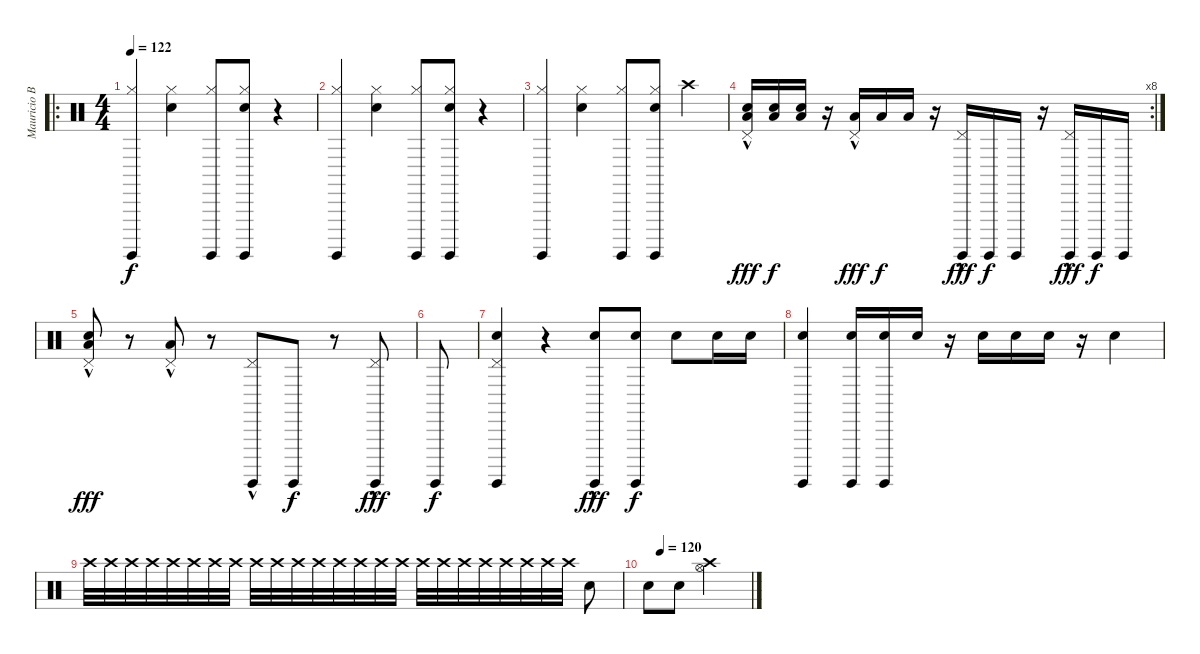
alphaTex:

\track ("Mauricio Basualto" "Mauricio B") {instrument percussion}
\staff {score}
\articulation defaults
\ro
\ts (4 4)
\tempo 122
\clef neutral
\ks c
("Surdo (hit)" "Hi-Hat (closed)").4{dy f} ("Hi-Hat (closed)" "Snare (hit) 2").4 ("Surdo (hit)" "Hi-Hat (closed)").8 ("Surdo (hit)" "Hi-Hat (closed)" "Snare (hit) 2").8 r.4 |
("Surdo (hit)" "Hi-Hat (closed)").4 ("Hi-Hat (closed)" "Snare (hit) 2").4 ("Surdo (hit)" "Hi-Hat (closed)").8 ("Surdo (hit)" "Hi-Hat (closed)" "Snare (hit) 2").8 r.4 |
("Surdo (hit)" "Hi-Hat (closed)").4 ("Hi-Hat (closed)" "Snare (hit) 2").4 ("Surdo (hit)" "Hi-Hat (closed)").8 ("Surdo (hit)" "Hi-Hat (closed)" "Snare (hit) 2").8 "Crash high (hit)".4 |
\rc 8
("Low Tom (hit)"{hac} "Snare (hit) 2" "Pedal Hi-Hat (hit)").16{dy fff} ("Low Tom (hit)" "Snare (hit) 2").16{dy f} ("Low Tom (hit)" "Snare (hit) 2").16 r.16 ("Low Tom (hit)"{hac} "Pedal Hi-Hat (hit)").16{dy fff} "Low Tom (hit)".16{dy f} "Low Tom (hit)".16 r.16 ("Surdo (hit)"{hac} "Pedal Hi-Hat (hit)").16{dy fff} "Surdo (hit)".16{dy f} "Surdo (hit)".16 r.16 ("Surdo (hit)"{hac} "Pedal Hi-Hat (hit)").16{dy fff} "Surdo (hit)".16{dy f} "Surdo (hit)".16 |
("Low Tom (hit)"{hac} "Snare (hit) 2" "Pedal Hi-Hat (hit)").8{dy fff} r.8 ("Low Tom (hit)"{hac} "Pedal Hi-Hat (hit)").8 r.8 ("Surdo (hit)"{hac} "Pedal Hi-Hat (hit)").8 "Surdo (hit)".8{dy f} r.8 ("Surdo (hit)"{hac} "Pedal Hi-Hat (hit)").8{dy fff} |
"Surdo (hit)".8{dy f} |
("Snare (hit) 2" "Pedal Hi-Hat (hit)" "Surdo (hit)").4 r.4 ("Snare (hit) 2"{hac} "Surdo (hit)").8{dy fff} ("Snare (hit) 2" "Surdo (hit)").8{dy f} "Snare (hit) 2".8 "Snare (hit) 2".16 "Snare (hit) 2".16 |
("Snare (hit) 2" "Surdo (hit)").4 ("Snare (hit) 2" "Surdo (hit)").16 ("Snare (hit) 2" "Surdo (hit)").16 "Snare (hit) 2".16 r.16 "Snare (hit) 2".16 "Snare (hit) 2".16 "Snare (hit) 2".16 r.16 "Snare (hit) 2".4 |
"Crash high (hit)".32 "Crash high (hit)".32 "Crash high (hit)".32 "Crash high (hit)".32 "Crash high (hit)".32 "Crash high (hit)".32 "Crash high (hit)".32 "Crash high (hit)".32 "Crash high (hit)".32 "Crash high (hit)".32 "Crash high (hit)".32 "Crash high (hit)".32 "Crash high (hit)".32 "Crash high (hit)".32 "Crash high (hit)".32 "Crash high (hit)".32 "Crash high (hit)".32 "Crash high (hit)".32 "Crash high (hit)".32 "Crash high (hit)".32 "Crash high (hit)".32 "Crash high (hit)".32 "Crash high (hit)".32 "Crash high (hit)".32 "Snare (hit) 2".8 |
\tempo (120 0.125)
"Snare (hit) 2".8 "Snare (hit) 2".8{volume 15 balance 16} ("Hi-Hat (open)" "Crash high (hit)").2
